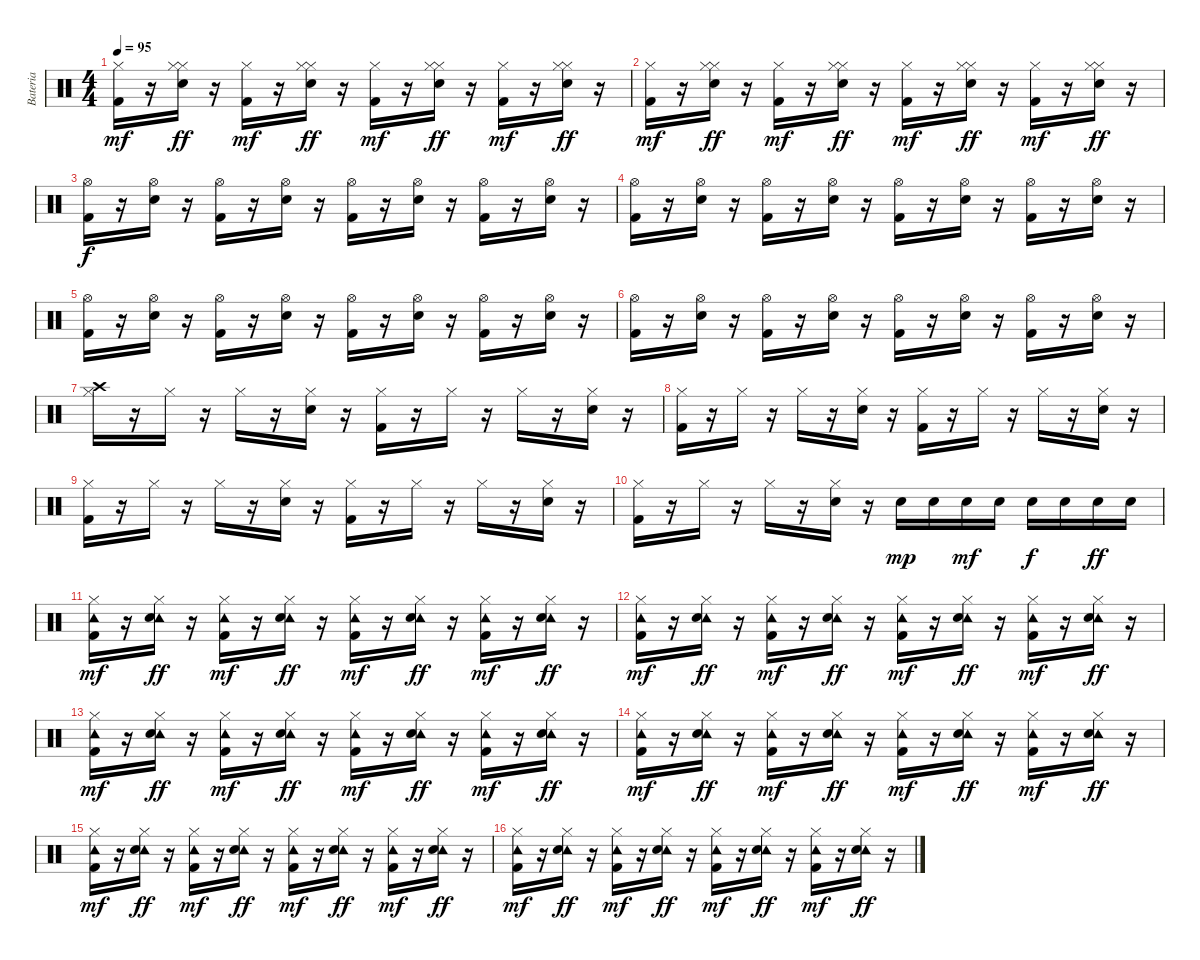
\track ("Bateria" "Bateria") {instrument percussion}
\staff {score}
\articulation defaults
\ts (4 4)
\tempo 95
\clef neutral
\ks c
("Hi-Hat (closed)" "Kick (hit) 2").16{dy mf} r.16 ("Hi-Hat (closed)" "Hi-Hat (closed)" "Snare (hit) 2").16{dy ff} r.16 ("Hi-Hat (closed)" "Kick (hit) 2").16{dy mf} r.16 ("Hi-Hat (closed)" "Hi-Hat (closed)" "Snare (hit) 2").16{dy ff} r.16 ("Hi-Hat (closed)" "Kick (hit) 2").16{dy mf} r.16 ("Hi-Hat (closed)" "Hi-Hat (closed)" "Snare (hit) 2").16{dy ff} r.16 ("Hi-Hat (closed)" "Kick (hit) 2").16{dy mf} r.16 ("Hi-Hat (closed)" "Hi-Hat (closed)" "Snare (hit) 2").16{dy ff} r.16 |
("Hi-Hat (closed)" "Kick (hit) 2").16{dy mf} r.16 ("Hi-Hat (closed)" "Hi-Hat (closed)" "Snare (hit) 2").16{dy ff} r.16 ("Hi-Hat (closed)" "Kick (hit) 2").16{dy mf} r.16 ("Hi-Hat (closed)" "Hi-Hat (closed)" "Snare (hit) 2").16{dy ff} r.16 ("Hi-Hat (closed)" "Kick (hit) 2").16{dy mf} r.16 ("Hi-Hat (closed)" "Hi-Hat (closed)" "Snare (hit) 2").16{dy ff} r.16 ("Hi-Hat (closed)" "Kick (hit) 2").16{dy mf} r.16 ("Hi-Hat (closed)" "Hi-Hat (closed)" "Snare (hit) 2").16{dy ff} r.16 |
("Hi-Hat (open)" "Kick (hit) 2").16{dy f} r.16 ("Hi-Hat (open)" "Snare (hit) 2").16 r.16 ("Hi-Hat (open)" "Kick (hit) 2").16 r.16 ("Hi-Hat (open)" "Snare (hit) 2").16 r.16 ("Hi-Hat (open)" "Kick (hit) 2").16 r.16 ("Hi-Hat (open)" "Snare (hit) 2").16 r.16 ("Hi-Hat (open)" "Kick (hit) 2").16 r.16 ("Hi-Hat (open)" "Snare (hit) 2").16 r.16 |
("Hi-Hat (open)" "Kick (hit) 2").16 r.16 ("Hi-Hat (open)" "Snare (hit) 2").16 r.16 ("Hi-Hat (open)" "Kick (hit) 2").16 r.16 ("Hi-Hat (open)" "Snare (hit) 2").16 r.16 ("Hi-Hat (open)" "Kick (hit) 2").16 r.16 ("Hi-Hat (open)" "Snare (hit) 2").16 r.16 ("Hi-Hat (open)" "Kick (hit) 2").16 r.16 ("Hi-Hat (open)" "Snare (hit) 2").16 r.16 |
("Hi-Hat (open)" "Kick (hit) 2").16 r.16 ("Hi-Hat (open)" "Snare (hit) 2").16 r.16 ("Hi-Hat (open)" "Kick (hit) 2").16 r.16 ("Hi-Hat (open)" "Snare (hit) 2").16 r.16 ("Hi-Hat (open)" "Kick (hit) 2").16 r.16 ("Hi-Hat (open)" "Snare (hit) 2").16 r.16 ("Hi-Hat (open)" "Kick (hit) 2").16 r.16 ("Hi-Hat (open)" "Snare (hit) 2").16 r.16 |
("Hi-Hat (open)" "Kick (hit) 2").16 r.16 ("Hi-Hat (open)" "Snare (hit) 2").16 r.16 ("Hi-Hat (open)" "Kick (hit) 2").16 r.16 ("Hi-Hat (open)" "Snare (hit) 2").16 r.16 ("Hi-Hat (open)" "Kick (hit) 2").16 r.16 ("Hi-Hat (open)" "Snare (hit) 2").16 r.16 ("Hi-Hat (open)" "Kick (hit) 2").16 r.16 ("Hi-Hat (open)" "Snare (hit) 2").16 r.16 |
("Crash high (hit)" "Hi-Hat (closed)").16 r.16 "Hi-Hat (closed)".16 r.16 "Hi-Hat (closed)".16 r.16 ("Hi-Hat (closed)" "Snare (hit) 2").16 r.16 ("Hi-Hat (closed)" "Kick (hit) 2").16 r.16 "Hi-Hat (closed)".16 r.16 "Hi-Hat (closed)".16 r.16 ("Hi-Hat (closed)" "Snare (hit) 2").16 r.16 |
("Hi-Hat (closed)" "Kick (hit) 2").16 r.16 "Hi-Hat (closed)".16 r.16 "Hi-Hat (closed)".16 r.16 ("Hi-Hat (closed)" "Snare (hit) 2").16 r.16 ("Hi-Hat (closed)" "Kick (hit) 2").16 r.16 "Hi-Hat (closed)".16 r.16 "Hi-Hat (closed)".16 r.16 ("Hi-Hat (closed)" "Snare (hit) 2").16 r.16 |
("Hi-Hat (closed)" "Kick (hit) 2").16 r.16 "Hi-Hat (closed)".16 r.16 "Hi-Hat (closed)".16 r.16 ("Hi-Hat (closed)" "Snare (hit) 2").16 r.16 ("Hi-Hat (closed)" "Kick (hit) 2").16 r.16 "Hi-Hat (closed)".16 r.16 "Hi-Hat (closed)".16 r.16 ("Hi-Hat (closed)" "Snare (hit) 2").16 r.16 |
("Hi-Hat (closed)" "Kick (hit) 2").16 r.16 "Hi-Hat (closed)".16 r.16 "Hi-Hat (closed)".16 r.16 ("Hi-Hat (closed)" "Snare (hit) 2").16 r.16 "Snare (hit) 2".16{dy mp} "Snare (hit) 2".16 "Snare (hit) 2".16{dy mf} "Snare (hit) 2".16 "Snare (hit) 2".16{dy f} "Snare (hit) 2".16 "Snare (hit) 2".16{dy ff} "Snare (hit) 2".16 |
("Tambourine (hit)" "Hi-Hat (closed)" "Kick (hit) 2").16{dy mf} r.16 ("Tambourine (hit)" "Hi-Hat (closed)" "Snare (hit) 2").16{dy ff} r.16 ("Tambourine (hit)" "Hi-Hat (closed)" "Kick (hit) 2").16{dy mf} r.16 ("Tambourine (hit)" "Hi-Hat (closed)" "Snare (hit) 2").16{dy ff} r.16 ("Tambourine (hit)" "Hi-Hat (closed)" "Kick (hit) 2").16{dy mf} r.16 ("Tambourine (hit)" "Hi-Hat (closed)" "Snare (hit) 2").16{dy ff} r.16 ("Tambourine (hit)" "Hi-Hat (closed)" "Kick (hit) 2").16{dy mf} r.16 ("Tambourine (hit)" "Hi-Hat (closed)" "Snare (hit) 2").16{dy ff} r.16 |
("Tambourine (hit)" "Hi-Hat (closed)" "Kick (hit) 2").16{dy mf} r.16 ("Tambourine (hit)" "Hi-Hat (closed)" "Snare (hit) 2").16{dy ff} r.16 ("Tambourine (hit)" "Hi-Hat (closed)" "Kick (hit) 2").16{dy mf} r.16 ("Tambourine (hit)" "Hi-Hat (closed)" "Snare (hit) 2").16{dy ff} r.16 ("Tambourine (hit)" "Hi-Hat (closed)" "Kick (hit) 2").16{dy mf} r.16 ("Tambourine (hit)" "Hi-Hat (closed)" "Snare (hit) 2").16{dy ff} r.16 ("Tambourine (hit)" "Hi-Hat (closed)" "Kick (hit) 2").16{dy mf} r.16 ("Tambourine (hit)" "Hi-Hat (closed)" "Snare (hit) 2").16{dy ff} r.16 |
("Tambourine (hit)" "Hi-Hat (closed)" "Kick (hit) 2").16{dy mf} r.16 ("Tambourine (hit)" "Hi-Hat (closed)" "Snare (hit) 2").16{dy ff} r.16 ("Tambourine (hit)" "Hi-Hat (closed)" "Kick (hit) 2").16{dy mf} r.16 ("Tambourine (hit)" "Hi-Hat (closed)" "Snare (hit) 2").16{dy ff} r.16 ("Tambourine (hit)" "Hi-Hat (closed)" "Kick (hit) 2").16{dy mf} r.16 ("Tambourine (hit)" "Hi-Hat (closed)" "Snare (hit) 2").16{dy ff} r.16 ("Tambourine (hit)" "Hi-Hat (closed)" "Kick (hit) 2").16{dy mf} r.16 ("Tambourine (hit)" "Hi-Hat (closed)" "Snare (hit) 2").16{dy ff} r.16 |
("Tambourine (hit)" "Hi-Hat (closed)" "Kick (hit) 2").16{dy mf} r.16 ("Tambourine (hit)" "Hi-Hat (closed)" "Snare (hit) 2").16{dy ff} r.16 ("Tambourine (hit)" "Hi-Hat (closed)" "Kick (hit) 2").16{dy mf} r.16 ("Tambourine (hit)" "Hi-Hat (closed)" "Snare (hit) 2").16{dy ff} r.16 ("Tambourine (hit)" "Hi-Hat (closed)" "Kick (hit) 2").16{dy mf} r.16 ("Tambourine (hit)" "Hi-Hat (closed)" "Snare (hit) 2").16{dy ff} r.16 ("Tambourine (hit)" "Hi-Hat (closed)" "Kick (hit) 2").16{dy mf} r.16 ("Tambourine (hit)" "Hi-Hat (closed)" "Snare (hit) 2").16{dy ff} r.16 |
("Tambourine (hit)" "Hi-Hat (closed)" "Kick (hit) 2").16{dy mf} r.16 ("Tambourine (hit)" "Hi-Hat (closed)" "Snare (hit) 2").16{dy ff} r.16 ("Tambourine (hit)" "Hi-Hat (closed)" "Kick (hit) 2").16{dy mf} r.16 ("Tambourine (hit)" "Hi-Hat (closed)" "Snare (hit) 2").16{dy ff} r.16 ("Tambourine (hit)" "Hi-Hat (closed)" "Kick (hit) 2").16{dy mf} r.16 ("Tambourine (hit)" "Hi-Hat (closed)" "Snare (hit) 2").16{dy ff} r.16 ("Tambourine (hit)" "Hi-Hat (closed)" "Kick (hit) 2").16{dy mf} r.16 ("Tambourine (hit)" "Hi-Hat (closed)" "Snare (hit) 2").16{dy ff} r.16 |
("Tambourine (hit)" "Hi-Hat (closed)" "Kick (hit) 2").16{dy mf} r.16 ("Tambourine (hit)" "Hi-Hat (closed)" "Snare (hit) 2").16{dy ff} r.16 ("Tambourine (hit)" "Hi-Hat (closed)" "Kick (hit) 2").16{dy mf} r.16 ("Tambourine (hit)" "Hi-Hat (closed)" "Snare (hit) 2").16{dy ff} r.16 ("Tambourine (hit)" "Hi-Hat (closed)" "Kick (hit) 2").16{dy mf} r.16 ("Tambourine (hit)" "Hi-Hat (closed)" "Snare (hit) 2").16{dy ff} r.16 ("Tambourine (hit)" "Hi-Hat (closed)" "Kick (hit) 2").16{dy mf} r.16 ("Tambourine (hit)" "Hi-Hat (closed)" "Snare (hit) 2").16{dy ff} r.16
